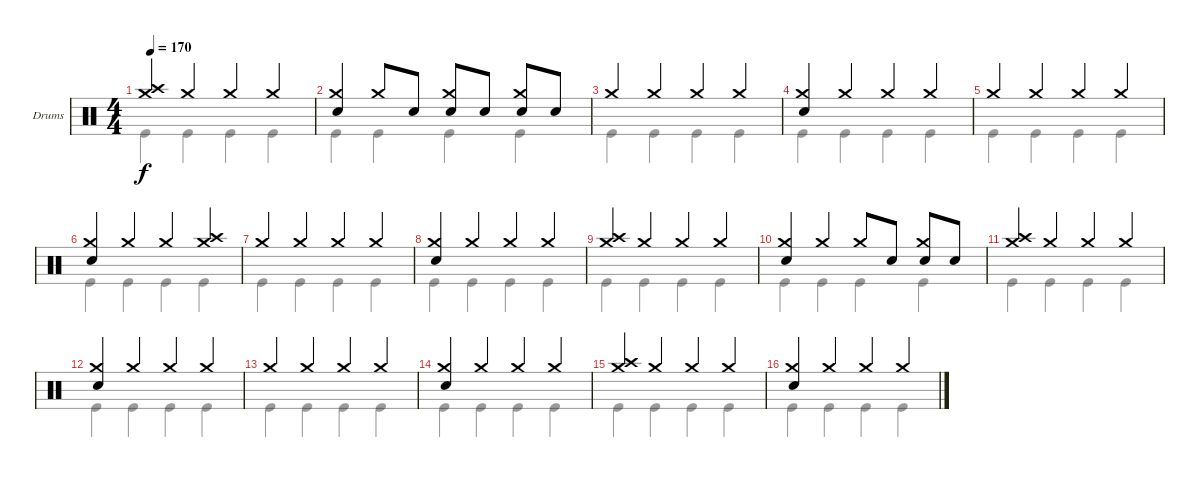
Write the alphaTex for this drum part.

\defaultSystemsLayout 4
\bracketExtendMode groupsimilarinstruments
\firstSystemTrackNameOrientation horizontal
\otherSystemsTrackNameOrientation horizontal
\track ("Drumkit" "Drums") {instrument percussion}
\staff {score}
\articulation defaults
\voice
\ts (4 4)
\tempo 170
\clef neutral
\ks c
("Crash medium (hit)" "Crash high (hit)").4{dy f} "Crash medium (hit)".4 "Crash medium (hit)".4 "Crash medium (hit)".4 |
("Crash medium (hit)" "Snare (hit) 2").4 "Crash medium (hit)".8 "Snare (hit) 2".8 ("Crash medium (hit)" "Snare (hit) 2").8 "Snare (hit) 2".8 ("Crash medium (hit)" "Snare (hit) 2").8 "Snare (hit) 2".8 |
"Crash medium (hit)".4 "Crash medium (hit)".4 "Crash medium (hit)".4 "Crash medium (hit)".4 |
("Crash medium (hit)" "Snare (hit) 2").4 "Crash medium (hit)".4 "Crash medium (hit)".4 "Crash medium (hit)".4 |
"Crash medium (hit)".4 "Crash medium (hit)".4 "Crash medium (hit)".4 "Crash medium (hit)".4 |
("Crash medium (hit)" "Snare (hit) 2").4 "Crash medium (hit)".4 "Crash medium (hit)".4 ("Crash medium (hit)" "Crash high (hit)").4 |
"Crash medium (hit)".4 "Crash medium (hit)".4 "Crash medium (hit)".4 "Crash medium (hit)".4 |
("Crash medium (hit)" "Snare (hit) 2").4 "Crash medium (hit)".4 "Crash medium (hit)".4 "Crash medium (hit)".4 |
("Crash medium (hit)" "Crash high (hit)").4 "Crash medium (hit)".4 "Crash medium (hit)".4 "Crash medium (hit)".4 |
("Crash medium (hit)" "Snare (hit) 2").4 "Crash medium (hit)".4 "Crash medium (hit)".8 "Snare (hit) 2".8 ("Crash medium (hit)" "Snare (hit) 2").8 "Snare (hit) 2".8 |
("Crash medium (hit)" "Crash high (hit)").4 "Crash medium (hit)".4 "Crash medium (hit)".4 "Crash medium (hit)".4 |
("Crash medium (hit)" "Snare (hit) 2").4 "Crash medium (hit)".4 "Crash medium (hit)".4 "Crash medium (hit)".4 |
"Crash medium (hit)".4 "Crash medium (hit)".4 "Crash medium (hit)".4 "Crash medium (hit)".4 |
("Crash medium (hit)" "Snare (hit) 2").4 "Crash medium (hit)".4 "Crash medium (hit)".4 "Crash medium (hit)".4 |
("Crash medium (hit)" "Crash high (hit)").4 "Crash medium (hit)".4 "Crash medium (hit)".4 "Crash medium (hit)".4 |
("Crash medium (hit)" "Snare (hit) 2").4 "Crash medium (hit)".4 "Crash medium (hit)".4 "Crash medium (hit)".4
\voice
\clef neutral
\ottava regular
\simile none
\ks c "Kick (hit)".4{dy f} "Kick (hit)".4 "Kick (hit)".4 "Kick (hit)".4
|
"Kick (hit)".4 "Kick (hit)".4 "Kick (hit)".4 "Kick (hit)".4 |
"Kick (hit)".4 "Kick (hit)".4 "Kick (hit)".4 "Kick (hit)".4 |
"Kick (hit)".4 "Kick (hit)".4 "Kick (hit)".4 "Kick (hit)".4 |
"Kick (hit)".4 "Kick (hit)".4 "Kick (hit)".4 "Kick (hit)".4 |
"Kick (hit)".4 "Kick (hit)".4 "Kick (hit)".4 "Kick (hit)".4 |
"Kick (hit)".4 "Kick (hit)".4 "Kick (hit)".4 "Kick (hit)".4 |
"Kick (hit)".4 "Kick (hit)".4 "Kick (hit)".4 "Kick (hit)".4 |
"Kick (hit)".4 "Kick (hit)".4 "Kick (hit)".4 "Kick (hit)".4 |
"Kick (hit)".4 "Kick (hit)".4 "Kick (hit)".4 "Kick (hit)".4 |
"Kick (hit)".4 "Kick (hit)".4 "Kick (hit)".4 "Kick (hit)".4 |
"Kick (hit)".4 "Kick (hit)".4 "Kick (hit)".4 "Kick (hit)".4 |
"Kick (hit)".4 "Kick (hit)".4 "Kick (hit)".4 "Kick (hit)".4 |
"Kick (hit)".4 "Kick (hit)".4 "Kick (hit)".4 "Kick (hit)".4 |
"Kick (hit)".4 "Kick (hit)".4 "Kick (hit)".4 "Kick (hit)".4 |
"Kick (hit)".4 "Kick (hit)".4 "Kick (hit)".4 "Kick (hit)".4
